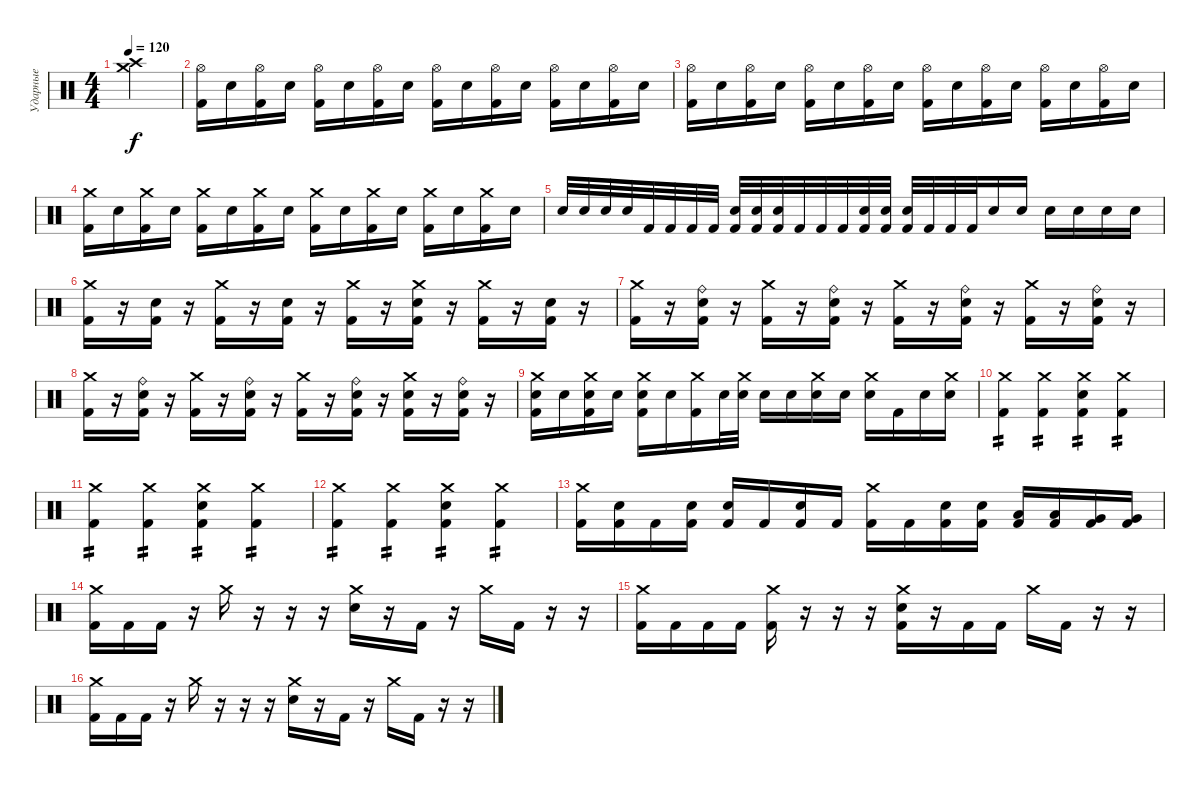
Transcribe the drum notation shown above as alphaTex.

\track ("Ударные" "Ударные") {instrument percussion}
\staff {score}
\articulation defaults
\ts (4 4)
\tempo 120
\clef neutral
\ks c
("Crash medium (hit)" "Crash high (hit)").4{dy f} |
("Hi-Hat (open)" "Kick (hit) 2").16 "Electric Snare (hit)".16 ("Hi-Hat (open)" "Kick (hit) 2").16 "Electric Snare (hit)".16 ("Hi-Hat (open)" "Kick (hit) 2").16 "Electric Snare (hit)".16 ("Hi-Hat (open)" "Kick (hit) 2").16 "Electric Snare (hit)".16 ("Hi-Hat (open)" "Kick (hit) 2").16 "Electric Snare (hit)".16 ("Hi-Hat (open)" "Kick (hit) 2").16 "Electric Snare (hit)".16 ("Hi-Hat (open)" "Kick (hit) 2").16 "Electric Snare (hit)".16 ("Hi-Hat (open)" "Kick (hit) 2").16 "Electric Snare (hit)".16 |
("Hi-Hat (open)" "Kick (hit) 2").16 "Electric Snare (hit)".16 ("Hi-Hat (open)" "Kick (hit) 2").16 "Electric Snare (hit)".16 ("Hi-Hat (open)" "Kick (hit) 2").16 "Electric Snare (hit)".16 ("Hi-Hat (open)" "Kick (hit) 2").16 "Electric Snare (hit)".16 ("Hi-Hat (open)" "Kick (hit) 2").16 "Electric Snare (hit)".16 ("Hi-Hat (open)" "Kick (hit) 2").16 "Electric Snare (hit)".16 ("Hi-Hat (open)" "Kick (hit) 2").16 "Electric Snare (hit)".16 ("Hi-Hat (open)" "Kick (hit) 2").16 "Electric Snare (hit)".16 |
("Crash medium (hit)" "Kick (hit) 2").16 "Electric Snare (hit)".16 ("Crash medium (hit)" "Kick (hit) 2").16 "Electric Snare (hit)".16 ("Crash medium (hit)" "Kick (hit) 2").16 "Electric Snare (hit)".16 ("Crash medium (hit)" "Kick (hit) 2").16 "Electric Snare (hit)".16 ("Crash medium (hit)" "Kick (hit) 2").16 "Electric Snare (hit)".16 ("Crash medium (hit)" "Kick (hit) 2").16 "Electric Snare (hit)".16 ("Crash medium (hit)" "Kick (hit) 2").16 "Electric Snare (hit)".16 ("Crash medium (hit)" "Kick (hit) 2").16 "Electric Snare (hit)".16 |
"Electric Snare (hit)".32 "Electric Snare (hit)".32 "Electric Snare (hit)".32 "Electric Snare (hit)".32 "Kick (hit) 2".32 "Kick (hit) 2".32 "Kick (hit) 2".32 "Kick (hit) 2".32 ("Electric Snare (hit)" "Kick (hit) 2").32 ("Electric Snare (hit)" "Kick (hit) 2").32 ("Electric Snare (hit)" "Kick (hit) 2").32 "Kick (hit) 2".32 "Kick (hit) 2".32 "Kick (hit) 2".32 ("Electric Snare (hit)" "Kick (hit) 2").32 ("Electric Snare (hit)" "Kick (hit) 2").32 ("Electric Snare (hit)" "Kick (hit) 2").32 "Kick (hit) 2".32 "Kick (hit) 2".32 "Kick (hit) 2".32 "Electric Snare (hit)".16 "Electric Snare (hit)".16 "Electric Snare (hit)".16 "Electric Snare (hit)".16 "Electric Snare (hit)".16 "Electric Snare (hit)".16 |
("Crash medium (hit)" "Kick (hit) 2").16 r.16 ("Electric Snare (hit)" "Kick (hit) 2").16 r.16 ("Crash medium (hit)" "Kick (hit) 2").16 r.16 ("Electric Snare (hit)" "Kick (hit) 2").16 r.16 ("Crash medium (hit)" "Kick (hit) 2").16 r.16 ("Crash medium (hit)" "Electric Snare (hit)" "Kick (hit) 2").16 r.16 ("Crash medium (hit)" "Kick (hit) 2").16 r.16 ("Electric Snare (hit)" "Kick (hit) 2").16 r.16 |
("Crash medium (hit)" "Kick (hit) 2").16 r.16 ("Ride (bell)" "Electric Snare (hit)" "Kick (hit) 2").16 r.16 ("Crash medium (hit)" "Kick (hit) 2").16 r.16 ("Ride (bell)" "Electric Snare (hit)" "Kick (hit) 2").16 r.16 ("Crash medium (hit)" "Kick (hit) 2").16 r.16 ("Ride (bell)" "Electric Snare (hit)" "Kick (hit) 2").16 r.16 ("Crash medium (hit)" "Kick (hit) 2").16 r.16 ("Ride (bell)" "Electric Snare (hit)" "Kick (hit) 2").16 r.16 |
("Crash medium (hit)" "Kick (hit) 2").16 r.16 ("Ride (bell)" "Electric Snare (hit)" "Kick (hit) 2").16 r.16 ("Crash medium (hit)" "Kick (hit) 2").16 r.16 ("Ride (bell)" "Electric Snare (hit)" "Kick (hit) 2").16 r.16 ("Crash medium (hit)" "Kick (hit) 2").16 r.16 ("Ride (bell)" "Electric Snare (hit)" "Kick (hit) 2").16 r.16 ("Crash medium (hit)" "Electric Snare (hit)" "Kick (hit) 2").16 r.16 ("Ride (bell)" "Electric Snare (hit)" "Kick (hit) 2").16 r.16 |
("Crash medium (hit)" "Electric Snare (hit)" "Kick (hit) 2").16 "Electric Snare (hit)".16 ("Crash medium (hit)" "Electric Snare (hit)" "Kick (hit) 2").16 "Electric Snare (hit)".16 ("Crash medium (hit)" "Electric Snare (hit)" "Kick (hit) 2").16 "Electric Snare (hit)".16 ("Crash medium (hit)" "Kick (hit) 2").16 "Electric Snare (hit)".32 ("Crash medium (hit)" "Electric Snare (hit)").32 "Electric Snare (hit)".16 "Electric Snare (hit)".16 ("Crash medium (hit)" "Electric Snare (hit)").16 "Electric Snare (hit)".16 ("Crash medium (hit)" "Electric Snare (hit)").16 "Kick (hit) 2".16 "Electric Snare (hit)".16 ("Crash medium (hit)" "Electric Snare (hit)").16 |
("Crash medium (hit)" "Kick (hit) 2").4{tp 2} ("Crash medium (hit)" "Kick (hit) 2").4{tp 2} ("Crash medium (hit)" "Electric Snare (hit)" "Kick (hit) 2").4{tp 2} ("Crash medium (hit)" "Kick (hit) 2").4{tp 2} |
("Crash medium (hit)" "Kick (hit) 2").4{tp 2} ("Crash medium (hit)" "Kick (hit) 2").4{tp 2} ("Crash medium (hit)" "Electric Snare (hit)" "Kick (hit) 2").4{tp 2} ("Crash medium (hit)" "Kick (hit) 2").4{tp 2} |
("Crash medium (hit)" "Kick (hit) 2").4{tp 2} ("Crash medium (hit)" "Kick (hit) 2").4{tp 2} ("Crash medium (hit)" "Electric Snare (hit)" "Kick (hit) 2").4{tp 2} ("Crash medium (hit)" "Kick (hit) 2").4{tp 2} |
("Crash medium (hit)" "Kick (hit) 2").16 ("Electric Snare (hit)" "Kick (hit) 2").16 "Kick (hit) 2".16 ("Electric Snare (hit)" "Kick (hit) 2").16 ("Electric Snare (hit)" "Kick (hit) 2").16 "Kick (hit) 2".16 ("Electric Snare (hit)" "Kick (hit) 2").16 "Kick (hit) 2".16 ("Crash medium (hit)" "Kick (hit) 2").16 "Kick (hit) 2".16 ("Electric Snare (hit)" "Kick (hit) 2").16 ("Electric Snare (hit)" "Kick (hit) 2").16 ("Low Tom (hit)" "Kick (hit) 2").16 ("Low Tom (hit)" "Kick (hit) 2").16 ("Very Low Tom (hit)" "Kick (hit) 2").16 ("Very Low Tom (hit)" "Kick (hit) 2").16 |
("Crash medium (hit)" "Kick (hit) 2").16 "Kick (hit) 2".16 "Kick (hit) 2".16 r.16 "Crash medium (hit)".16 r.16 r.16 r.16 ("Crash medium (hit)" "Electric Snare (hit)").16 r.16 "Kick (hit) 2".16 r.16 "Crash medium (hit)".16 "Kick (hit) 2".16 r.16 r.16 |
("Crash medium (hit)" "Kick (hit) 2").16 "Kick (hit) 2".16 "Kick (hit) 2".16 "Kick (hit) 2".16 ("Crash medium (hit)" "Kick (hit) 2").16 r.16 r.16 r.16 ("Crash medium (hit)" "Electric Snare (hit)" "Kick (hit) 2").16 r.16 "Kick (hit) 2".16 "Kick (hit) 2".16 "Crash medium (hit)".16 "Kick (hit) 2".16 r.16 r.16 |
("Crash medium (hit)" "Kick (hit) 2").16 "Kick (hit) 2".16 "Kick (hit) 2".16 r.16 "Crash medium (hit)".16 r.16 r.16 r.16 ("Crash medium (hit)" "Electric Snare (hit)").16 r.16 "Kick (hit) 2".16 r.16 "Crash medium (hit)".16 "Kick (hit) 2".16 r.16 r.16
